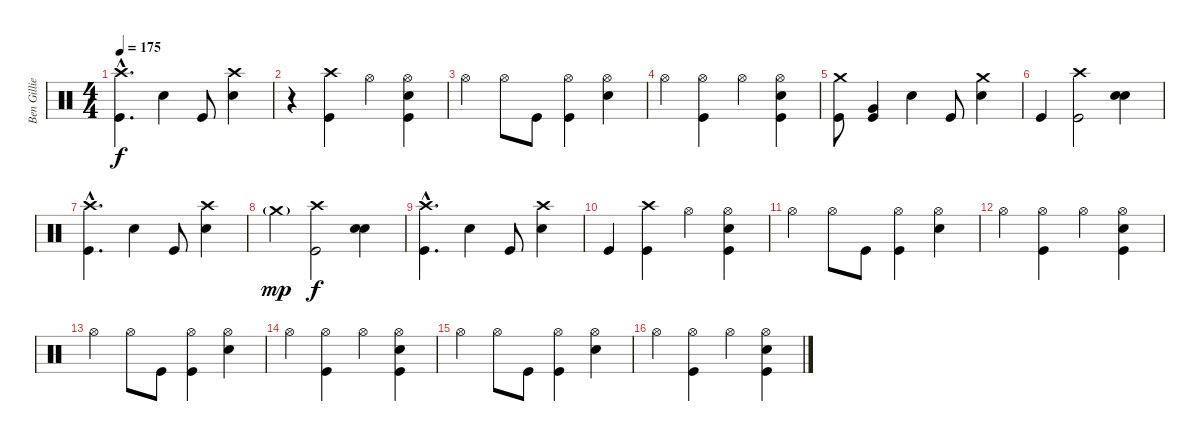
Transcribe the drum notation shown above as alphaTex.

\track ("Ben Gillies" "Ben Gillie") {instrument percussion}
\staff {score}
\articulation defaults
\ts (4 4)
\tempo 175
\clef neutral
\ks c
("Kick (hit)"{hac} "Crash high (hit)"{hac}).4{d dy f} "Snare (hit) 2".4 "Kick (hit)".8 ("Snare (hit) 2" "Crash high (hit)").4 |
r.4 ("Kick (hit)" "Crash high (hit)").4 "Hi-Hat (open)".4 ("Kick (hit)" "Snare (hit) 2" "Hi-Hat (open)").4 |
"Hi-Hat (open)".4 "Hi-Hat (open)".8 "Kick (hit)".8 ("Kick (hit)" "Hi-Hat (open)").4 ("Snare (hit) 2" "Hi-Hat (open)").4 |
"Hi-Hat (open)".4 ("Kick (hit)" "Hi-Hat (open)").4 "Hi-Hat (open)".4 ("Kick (hit)" "Snare (hit) 2" "Hi-Hat (open)").4 |
("Kick (hit)" "Crash medium (hit)").8 ("Kick (hit)" "Very Low Tom (hit)").4 "Snare (hit) 2".4 "Kick (hit)".8 ("Snare (hit) 2" "Crash medium (hit)").4 |
"Kick (hit)".4 ("Kick (hit)" "Crash high (hit)").2 ("Snare (hit) 2" "Snare (hit) 2").4{bu 60} |
("Kick (hit)"{hac} "Crash high (hit)"{hac}).4{d} "Snare (hit) 2".4 "Kick (hit)".8 ("Snare (hit) 2" "Crash high (hit)").4 |
"Crash medium (hit)"{g}.4{dy mp} ("Kick (hit)" "Crash high (hit)").2{dy f} ("Snare (hit) 2" "Snare (hit) 2").4{bu 60} |
("Kick (hit)"{hac} "Crash high (hit)"{hac}).4{d} "Snare (hit) 2".4 "Kick (hit)".8 ("Snare (hit) 2" "Crash high (hit)").4 |
"Kick (hit)".4 ("Kick (hit)" "Crash high (hit)").4 "Hi-Hat (open)".4 ("Kick (hit)" "Snare (hit) 2" "Hi-Hat (open)").4 |
"Hi-Hat (open)".4 "Hi-Hat (open)".8 "Kick (hit)".8 ("Kick (hit)" "Hi-Hat (open)").4 ("Snare (hit) 2" "Hi-Hat (open)").4 |
"Hi-Hat (open)".4 ("Kick (hit)" "Hi-Hat (open)").4 "Hi-Hat (open)".4 ("Kick (hit)" "Snare (hit) 2" "Hi-Hat (open)").4 |
"Hi-Hat (open)".4 "Hi-Hat (open)".8 "Kick (hit)".8 ("Kick (hit)" "Hi-Hat (open)").4 ("Snare (hit) 2" "Hi-Hat (open)").4 |
"Hi-Hat (open)".4 ("Kick (hit)" "Hi-Hat (open)").4 "Hi-Hat (open)".4 ("Kick (hit)" "Snare (hit) 2" "Hi-Hat (open)").4 |
"Hi-Hat (open)".4 "Hi-Hat (open)".8 "Kick (hit)".8 ("Kick (hit)" "Hi-Hat (open)").4 ("Snare (hit) 2" "Hi-Hat (open)").4 |
"Hi-Hat (open)".4 ("Kick (hit)" "Hi-Hat (open)").4 "Hi-Hat (open)".4 ("Kick (hit)" "Snare (hit) 2" "Hi-Hat (open)").4
